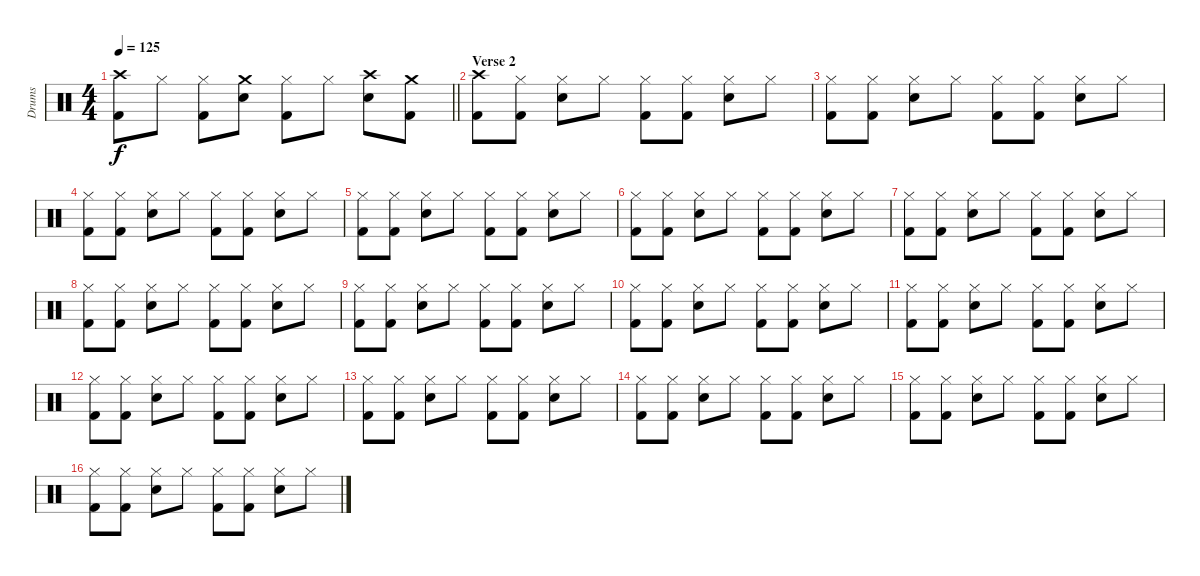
\track ("Drums" "Drums") {instrument percussion}
\staff {score}
\articulation defaults
\ts (4 4)
\tempo 125
\clef neutral
\barLineRight lightlight
\ks c
("Crash high (hit)" "Kick (hit) 2").8{dy f} "Hi-Hat (closed)".8 ("Hi-Hat (closed)" "Kick (hit) 2").8 ("Crash medium (hit)" "Electric Snare (hit)").8 ("Hi-Hat (closed)" "Kick (hit) 2").8 "Hi-Hat (closed)".8 ("Crash high (hit)" "Electric Snare (hit)").8 ("Crash medium (hit)" "Kick (hit) 2").8 |
\section ("" "Verse 2")
("Crash high (hit)" "Kick (hit) 2").8 ("Hi-Hat (closed)" "Kick (hit) 2").8 ("Hi-Hat (closed)" "Electric Snare (hit)").8 "Hi-Hat (closed)".8 ("Hi-Hat (closed)" "Kick (hit) 2").8 ("Hi-Hat (closed)" "Kick (hit) 2").8 ("Hi-Hat (closed)" "Electric Snare (hit)").8 "Hi-Hat (closed)".8 |
("Hi-Hat (closed)" "Kick (hit) 2").8 ("Hi-Hat (closed)" "Kick (hit) 2").8 ("Hi-Hat (closed)" "Electric Snare (hit)").8 "Hi-Hat (closed)".8 ("Hi-Hat (closed)" "Kick (hit) 2").8 ("Hi-Hat (closed)" "Kick (hit) 2").8 ("Hi-Hat (closed)" "Electric Snare (hit)").8 "Hi-Hat (closed)".8 |
("Hi-Hat (closed)" "Kick (hit) 2").8 ("Hi-Hat (closed)" "Kick (hit) 2").8 ("Hi-Hat (closed)" "Electric Snare (hit)").8 "Hi-Hat (closed)".8 ("Hi-Hat (closed)" "Kick (hit) 2").8 ("Hi-Hat (closed)" "Kick (hit) 2").8 ("Hi-Hat (closed)" "Electric Snare (hit)").8 "Hi-Hat (closed)".8 |
("Hi-Hat (closed)" "Kick (hit) 2").8 ("Hi-Hat (closed)" "Kick (hit) 2").8 ("Hi-Hat (closed)" "Electric Snare (hit)").8 "Hi-Hat (closed)".8 ("Hi-Hat (closed)" "Kick (hit) 2").8 ("Hi-Hat (closed)" "Kick (hit) 2").8 ("Hi-Hat (closed)" "Electric Snare (hit)").8 "Hi-Hat (closed)".8 |
("Hi-Hat (closed)" "Kick (hit) 2").8 ("Hi-Hat (closed)" "Kick (hit) 2").8 ("Hi-Hat (closed)" "Electric Snare (hit)").8 "Hi-Hat (closed)".8 ("Hi-Hat (closed)" "Kick (hit) 2").8 ("Hi-Hat (closed)" "Kick (hit) 2").8 ("Hi-Hat (closed)" "Electric Snare (hit)").8 "Hi-Hat (closed)".8 |
("Hi-Hat (closed)" "Kick (hit) 2").8 ("Hi-Hat (closed)" "Kick (hit) 2").8 ("Hi-Hat (closed)" "Electric Snare (hit)").8 "Hi-Hat (closed)".8 ("Hi-Hat (closed)" "Kick (hit) 2").8 ("Hi-Hat (closed)" "Kick (hit) 2").8 ("Hi-Hat (closed)" "Electric Snare (hit)").8 "Hi-Hat (closed)".8 |
("Hi-Hat (closed)" "Kick (hit) 2").8 ("Hi-Hat (closed)" "Kick (hit) 2").8 ("Hi-Hat (closed)" "Electric Snare (hit)").8 "Hi-Hat (closed)".8 ("Hi-Hat (closed)" "Kick (hit) 2").8 ("Hi-Hat (closed)" "Kick (hit) 2").8 ("Hi-Hat (closed)" "Electric Snare (hit)").8 "Hi-Hat (closed)".8 |
("Hi-Hat (closed)" "Kick (hit) 2").8 ("Hi-Hat (closed)" "Kick (hit) 2").8 ("Hi-Hat (closed)" "Electric Snare (hit)").8 "Hi-Hat (closed)".8 ("Hi-Hat (closed)" "Kick (hit) 2").8 ("Hi-Hat (closed)" "Kick (hit) 2").8 ("Hi-Hat (closed)" "Electric Snare (hit)").8 "Hi-Hat (closed)".8 |
("Hi-Hat (closed)" "Kick (hit) 2").8 ("Hi-Hat (closed)" "Kick (hit) 2").8 ("Hi-Hat (closed)" "Electric Snare (hit)").8 "Hi-Hat (closed)".8 ("Hi-Hat (closed)" "Kick (hit) 2").8 ("Hi-Hat (closed)" "Kick (hit) 2").8 ("Hi-Hat (closed)" "Electric Snare (hit)").8 "Hi-Hat (closed)".8 |
("Hi-Hat (closed)" "Kick (hit) 2").8 ("Hi-Hat (closed)" "Kick (hit) 2").8 ("Hi-Hat (closed)" "Electric Snare (hit)").8 "Hi-Hat (closed)".8 ("Hi-Hat (closed)" "Kick (hit) 2").8 ("Hi-Hat (closed)" "Kick (hit) 2").8 ("Hi-Hat (closed)" "Electric Snare (hit)").8 "Hi-Hat (closed)".8 |
("Hi-Hat (closed)" "Kick (hit) 2").8 ("Hi-Hat (closed)" "Kick (hit) 2").8 ("Hi-Hat (closed)" "Electric Snare (hit)").8 "Hi-Hat (closed)".8 ("Hi-Hat (closed)" "Kick (hit) 2").8 ("Hi-Hat (closed)" "Kick (hit) 2").8 ("Hi-Hat (closed)" "Electric Snare (hit)").8 "Hi-Hat (closed)".8 |
("Hi-Hat (closed)" "Kick (hit) 2").8 ("Hi-Hat (closed)" "Kick (hit) 2").8 ("Hi-Hat (closed)" "Electric Snare (hit)").8 "Hi-Hat (closed)".8 ("Hi-Hat (closed)" "Kick (hit) 2").8 ("Hi-Hat (closed)" "Kick (hit) 2").8 ("Hi-Hat (closed)" "Electric Snare (hit)").8 "Hi-Hat (closed)".8 |
("Hi-Hat (closed)" "Kick (hit) 2").8 ("Hi-Hat (closed)" "Kick (hit) 2").8 ("Hi-Hat (closed)" "Electric Snare (hit)").8 "Hi-Hat (closed)".8 ("Hi-Hat (closed)" "Kick (hit) 2").8 ("Hi-Hat (closed)" "Kick (hit) 2").8 ("Hi-Hat (closed)" "Electric Snare (hit)").8 "Hi-Hat (closed)".8 |
("Hi-Hat (closed)" "Kick (hit) 2").8 ("Hi-Hat (closed)" "Kick (hit) 2").8 ("Hi-Hat (closed)" "Electric Snare (hit)").8 "Hi-Hat (closed)".8 ("Hi-Hat (closed)" "Kick (hit) 2").8 ("Hi-Hat (closed)" "Kick (hit) 2").8 ("Hi-Hat (closed)" "Electric Snare (hit)").8 "Hi-Hat (closed)".8 |
("Hi-Hat (closed)" "Kick (hit) 2").8 ("Hi-Hat (closed)" "Kick (hit) 2").8 ("Hi-Hat (closed)" "Electric Snare (hit)").8 "Hi-Hat (closed)".8 ("Hi-Hat (closed)" "Kick (hit) 2").8 ("Hi-Hat (closed)" "Kick (hit) 2").8 ("Hi-Hat (closed)" "Electric Snare (hit)").8 "Hi-Hat (closed)".8
